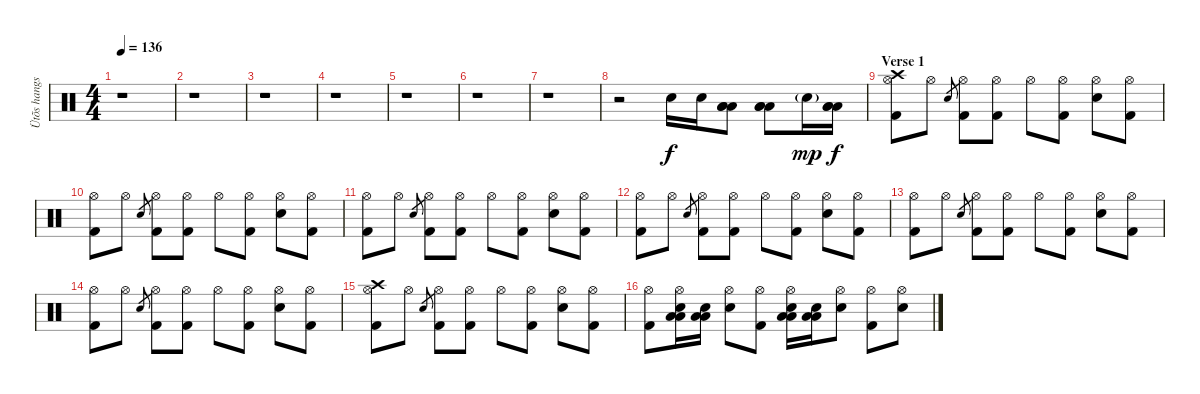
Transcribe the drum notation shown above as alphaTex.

\track ("Ütõs hangszer" "Ütõs hangs") {instrument percussion}
\staff {score}
\articulation defaults
\ts (4 4)
\tempo 136
\clef neutral
\ks c
r.1{dy f} |
r.1 |
r.1 |
r.1 |
r.1 |
r.1 |
r.1 |
r.2 "Snare (hit) 2".16 "Snare (hit) 2".16 ("Low Tom (hit)" "Low Tom (hit)" "Low Tom (hit)").8 ("Low Tom (hit)" "Low Tom (hit)" "Low Tom (hit)").8 "Snare (hit) 2"{g}.16{dy mp} ("Low Tom (hit)" "Low Tom (hit)" "Low Tom (hit)").16{dy f} |
\section ("" "Verse 1")
("Hi-Hat (open)" "Kick (hit) 2" "Crash high (hit)").8 "Hi-Hat (open)".8 "Snare (hit) 2"{h}.8{gr} ("Hi-Hat (open)" "Kick (hit) 2").8 ("Hi-Hat (open)" "Kick (hit) 2").8 "Hi-Hat (open)".8 ("Hi-Hat (open)" "Kick (hit) 2").8 ("Hi-Hat (open)" "Snare (hit) 2").8 ("Hi-Hat (open)" "Kick (hit) 2").8 |
("Hi-Hat (open)" "Kick (hit) 2").8 "Hi-Hat (open)".8 "Snare (hit) 2"{h}.8{gr} ("Hi-Hat (open)" "Kick (hit) 2").8 ("Hi-Hat (open)" "Kick (hit) 2").8 "Hi-Hat (open)".8 ("Hi-Hat (open)" "Kick (hit) 2").8 ("Hi-Hat (open)" "Snare (hit) 2").8 ("Hi-Hat (open)" "Kick (hit) 2").8 |
("Hi-Hat (open)" "Kick (hit) 2").8 "Hi-Hat (open)".8 "Snare (hit) 2"{h}.8{gr} ("Hi-Hat (open)" "Kick (hit) 2").8 ("Hi-Hat (open)" "Kick (hit) 2").8 "Hi-Hat (open)".8 ("Hi-Hat (open)" "Kick (hit) 2").8 ("Hi-Hat (open)" "Snare (hit) 2").8 ("Hi-Hat (open)" "Kick (hit) 2").8 |
("Hi-Hat (open)" "Kick (hit) 2").8 "Hi-Hat (open)".8 "Snare (hit) 2"{h}.8{gr} ("Hi-Hat (open)" "Kick (hit) 2").8 ("Hi-Hat (open)" "Kick (hit) 2").8 "Hi-Hat (open)".8 ("Hi-Hat (open)" "Kick (hit) 2").8 ("Hi-Hat (open)" "Snare (hit) 2").8 ("Hi-Hat (open)" "Kick (hit) 2").8 |
("Hi-Hat (open)" "Kick (hit) 2").8 "Hi-Hat (open)".8 "Snare (hit) 2"{h}.8{gr} ("Hi-Hat (open)" "Kick (hit) 2").8 ("Hi-Hat (open)" "Kick (hit) 2").8 "Hi-Hat (open)".8 ("Hi-Hat (open)" "Kick (hit) 2").8 ("Hi-Hat (open)" "Snare (hit) 2").8 ("Hi-Hat (open)" "Kick (hit) 2").8 |
("Hi-Hat (open)" "Kick (hit) 2").8 "Hi-Hat (open)".8 "Snare (hit) 2"{h}.8{gr} ("Hi-Hat (open)" "Kick (hit) 2").8 ("Hi-Hat (open)" "Kick (hit) 2").8 "Hi-Hat (open)".8 ("Hi-Hat (open)" "Kick (hit) 2").8 ("Hi-Hat (open)" "Snare (hit) 2").8 ("Hi-Hat (open)" "Kick (hit) 2").8 |
("Hi-Hat (open)" "Kick (hit) 2" "Crash high (hit)").8 "Hi-Hat (open)".8 "Snare (hit) 2"{h}.8{gr} ("Hi-Hat (open)" "Kick (hit) 2").8 ("Hi-Hat (open)" "Kick (hit) 2").8 "Hi-Hat (open)".8 ("Hi-Hat (open)" "Kick (hit) 2").8 ("Hi-Hat (open)" "Snare (hit) 2").8 ("Hi-Hat (open)" "Kick (hit) 2").8 |
("Hi-Hat (open)" "Kick (hit) 2").8 ("Hi-Hat (open)" "Low Tom (hit)" "Low Tom (hit)" "Snare (hit) 2").16 ("Low Tom (hit)" "Low Tom (hit)" "Snare (hit) 2").16 ("Hi-Hat (open)" "Snare (hit) 2").8 ("Hi-Hat (open)" "Kick (hit) 2").8 ("Hi-Hat (open)" "Low Tom (hit)" "Low Tom (hit)" "Snare (hit) 2").16 ("Low Tom (hit)" "Low Tom (hit)" "Snare (hit) 2").16 ("Hi-Hat (open)" "Snare (hit) 2").8 ("Hi-Hat (open)" "Kick (hit) 2").8 ("Hi-Hat (open)" "Snare (hit) 2").8
